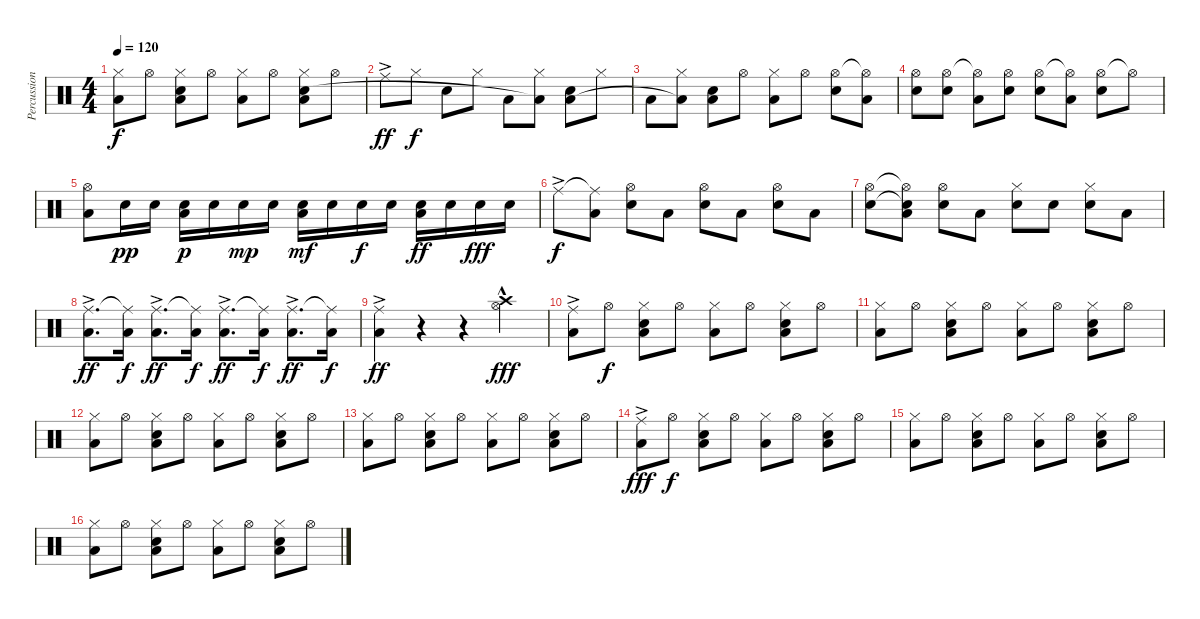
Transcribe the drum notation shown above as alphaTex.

\track ("Percussion" "Percussion") {instrument percussion}
\staff {score}
\articulation defaults
\ts (4 4)
\tempo 120
\clef neutral
\ks c
("Hi-Hat (closed)" "Low Floor Tom (hit)").8{dy f} "Hi-Hat (open)".8 ("Hi-Hat (closed)" "Snare (hit) 2" "Low Floor Tom (hit)").8 "Hi-Hat (open)".8 ("Hi-Hat (closed)" "Low Floor Tom (hit)").8 "Hi-Hat (open)".8 ("Hi-Hat (closed)" "Snare (hit) 2" "Low Floor Tom (hit)").8 "Hi-Hat (open)".8 |
"Ride (middle)"{ac}.8{dy ff} "Hi-Hat (closed)".8{dy f} "Snare (hit) 2".8 "Hi-Hat (closed)".8 "Low Floor Tom (hit)".8 ("Hi-Hat (closed)" "Low Floor Tom (hit)"{t}).8 ("Snare (hit) 2" "Low Floor Tom (hit)").8 "Hi-Hat (closed)".8 |
"Low Floor Tom (hit)".8 ("Hi-Hat (closed)" "Low Floor Tom (hit)"{t}).8 ("Snare (hit) 2" "Low Floor Tom (hit)").8 "Hi-Hat (open)".8 ("Hi-Hat (closed)" "Low Floor Tom (hit)").8 "Hi-Hat (open)".8 ("Hi-Hat (open)" "Snare (hit) 2").8 ("Hi-Hat (open)"{t} "Low Floor Tom (hit)").8 |
("Hi-Hat (open)" "Snare (hit) 2").8 ("Hi-Hat (open)" "Snare (hit) 2").8 ("Hi-Hat (open)"{t} "Low Floor Tom (hit)").8 ("Hi-Hat (open)" "Snare (hit) 2").8 ("Hi-Hat (open)" "Snare (hit) 2").8 ("Hi-Hat (open)"{t} "Low Floor Tom (hit)").8 ("Hi-Hat (open)" "Snare (hit) 2").8 "Hi-Hat (open)"{t}.8 |
("Hi-Hat (open)" "Low Floor Tom (hit)").8 "Snare (hit) 2".16{dy pp} "Snare (hit) 2".16 ("Snare (hit) 2" "Low Floor Tom (hit)").16{dy p} "Snare (hit) 2".16 "Snare (hit) 2".16{dy mp} "Snare (hit) 2".16 ("Snare (hit) 2" "Low Floor Tom (hit)").16{dy mf} "Snare (hit) 2".16 "Snare (hit) 2".16{dy f} "Snare (hit) 2".16 ("Snare (hit) 2" "Low Floor Tom (hit)").16{dy ff} "Snare (hit) 2".16 "Snare (hit) 2".16{dy fff} "Snare (hit) 2".16 |
"Ride (middle)"{ac}.8{dy f} ("Ride (middle)"{t} "Low Floor Tom (hit)").8 ("Hi-Hat (open)" "Snare (hit) 2").8 "Low Floor Tom (hit)".8 ("Hi-Hat (open)" "Snare (hit) 2").8 "Low Floor Tom (hit)".8 ("Hi-Hat (open)" "Snare (hit) 2").8 "Low Floor Tom (hit)".8 |
("Hi-Hat (open)" "Snare (hit) 2").8 ("Hi-Hat (open)"{t} "Snare (hit) 2"{t} "Low Floor Tom (hit)").8 ("Hi-Hat (open)" "Snare (hit) 2").8 "Low Floor Tom (hit)".8 ("Hi-Hat (closed)" "Snare (hit) 2").8 "Snare (hit) 2".8 ("Hi-Hat (closed)" "Snare (hit) 2").8 "Low Floor Tom (hit)".8 |
("Ride (middle)"{ac} "Low Floor Tom (hit)").8{d dy ff} ("Ride (middle)"{t} "Low Floor Tom (hit)").16{dy f} ("Ride (middle)"{ac} "Low Floor Tom (hit)").8{d dy ff} ("Ride (middle)"{t} "Low Floor Tom (hit)").16{dy f} ("Ride (middle)"{ac} "Low Floor Tom (hit)").8{d dy ff} ("Ride (middle)"{t} "Low Floor Tom (hit)").16{dy f} ("Ride (middle)"{ac} "Low Floor Tom (hit)").8{d dy ff} ("Ride (middle)"{t} "Low Floor Tom (hit)").16{dy f} |
("Ride (middle)"{ac} "Low Floor Tom (hit)").4{dy ff} r.4 r.4 ("Hi-Hat (open)"{hac} "Crash high (hit)").4{dy fff} |
("Ride (middle)"{ac} "Low Floor Tom (hit)").8 "Hi-Hat (open)".8{dy f} ("Hi-Hat (closed)" "Snare (hit) 2" "Low Floor Tom (hit)").8 "Hi-Hat (open)".8 ("Hi-Hat (closed)" "Low Floor Tom (hit)").8 "Hi-Hat (open)".8 ("Hi-Hat (closed)" "Snare (hit) 2" "Low Floor Tom (hit)").8 "Hi-Hat (open)".8 |
("Hi-Hat (closed)" "Low Floor Tom (hit)").8 "Hi-Hat (open)".8 ("Hi-Hat (closed)" "Snare (hit) 2" "Low Floor Tom (hit)").8 "Hi-Hat (open)".8 ("Hi-Hat (closed)" "Low Floor Tom (hit)").8 "Hi-Hat (open)".8 ("Hi-Hat (closed)" "Snare (hit) 2" "Low Floor Tom (hit)").8 "Hi-Hat (open)".8 |
("Hi-Hat (closed)" "Low Floor Tom (hit)").8 "Hi-Hat (open)".8 ("Hi-Hat (closed)" "Snare (hit) 2" "Low Floor Tom (hit)").8 "Hi-Hat (open)".8 ("Hi-Hat (closed)" "Low Floor Tom (hit)").8 "Hi-Hat (open)".8 ("Hi-Hat (closed)" "Snare (hit) 2" "Low Floor Tom (hit)").8 "Hi-Hat (open)".8 |
("Hi-Hat (closed)" "Low Floor Tom (hit)").8 "Hi-Hat (open)".8 ("Hi-Hat (closed)" "Snare (hit) 2" "Low Floor Tom (hit)").8 "Hi-Hat (open)".8 ("Hi-Hat (closed)" "Low Floor Tom (hit)").8 "Hi-Hat (open)".8 ("Hi-Hat (closed)" "Snare (hit) 2" "Low Floor Tom (hit)").8 "Hi-Hat (open)".8 |
("Ride (middle)"{ac} "Low Floor Tom (hit)").8{dy fff} "Hi-Hat (open)".8{dy f} ("Hi-Hat (closed)" "Snare (hit) 2" "Low Floor Tom (hit)").8 "Hi-Hat (open)".8 ("Hi-Hat (closed)" "Low Floor Tom (hit)").8 "Hi-Hat (open)".8 ("Hi-Hat (closed)" "Snare (hit) 2" "Low Floor Tom (hit)").8 "Hi-Hat (open)".8 |
("Hi-Hat (closed)" "Low Floor Tom (hit)").8 "Hi-Hat (open)".8 ("Hi-Hat (closed)" "Snare (hit) 2" "Low Floor Tom (hit)").8 "Hi-Hat (open)".8 ("Hi-Hat (closed)" "Low Floor Tom (hit)").8 "Hi-Hat (open)".8 ("Hi-Hat (closed)" "Snare (hit) 2" "Low Floor Tom (hit)").8 "Hi-Hat (open)".8 |
("Hi-Hat (closed)" "Low Floor Tom (hit)").8 "Hi-Hat (open)".8 ("Hi-Hat (closed)" "Snare (hit) 2" "Low Floor Tom (hit)").8 "Hi-Hat (open)".8 ("Hi-Hat (closed)" "Low Floor Tom (hit)").8 "Hi-Hat (open)".8 ("Hi-Hat (closed)" "Snare (hit) 2" "Low Floor Tom (hit)").8 "Hi-Hat (open)".8
